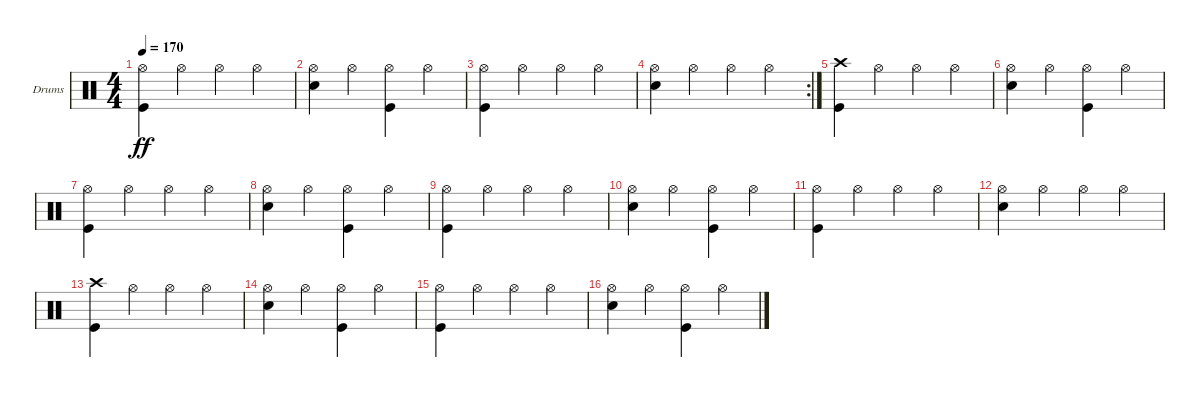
\defaultSystemsLayout 4
\bracketExtendMode groupsimilarinstruments
\firstSystemTrackNameOrientation horizontal
\otherSystemsTrackNameOrientation horizontal
\track ("Inferno" "Drums") {instrument percussion}
\staff {score}
\articulation defaults
\ts (4 4)
\tempo 170
\clef neutral
\ks c
("Hi-Hat (open)" "Kick (hit)").4{dy ff} "Hi-Hat (open)".4 "Hi-Hat (open)".4 "Hi-Hat (open)".4 |
("Hi-Hat (open)" "Snare (hit) 2").4 "Hi-Hat (open)".4 ("Hi-Hat (open)" "Kick (hit)").4 "Hi-Hat (open)".4 |
("Hi-Hat (open)" "Kick (hit)").4 "Hi-Hat (open)".4 "Hi-Hat (open)".4 "Hi-Hat (open)".4 |
\rc 2
("Hi-Hat (open)" "Snare (hit) 2").4 "Hi-Hat (open)".4 "Hi-Hat (open)".4 "Hi-Hat (open)".4 |
("Kick (hit)" "Crash high (hit)").4 "Hi-Hat (open)".4 "Hi-Hat (open)".4 "Hi-Hat (open)".4 |
("Hi-Hat (open)" "Snare (hit) 2").4 "Hi-Hat (open)".4 ("Hi-Hat (open)" "Kick (hit)").4 "Hi-Hat (open)".4 |
("Hi-Hat (open)" "Kick (hit)").4 "Hi-Hat (open)".4 "Hi-Hat (open)".4 "Hi-Hat (open)".4 |
("Hi-Hat (open)" "Snare (hit) 2").4 "Hi-Hat (open)".4 ("Hi-Hat (open)" "Kick (hit)").4 "Hi-Hat (open)".4 |
("Hi-Hat (open)" "Kick (hit)").4 "Hi-Hat (open)".4 "Hi-Hat (open)".4 "Hi-Hat (open)".4 |
("Hi-Hat (open)" "Snare (hit) 2").4 "Hi-Hat (open)".4 ("Hi-Hat (open)" "Kick (hit)").4 "Hi-Hat (open)".4 |
("Hi-Hat (open)" "Kick (hit)").4 "Hi-Hat (open)".4 "Hi-Hat (open)".4 "Hi-Hat (open)".4 |
("Hi-Hat (open)" "Snare (hit) 2").4 "Hi-Hat (open)".4 "Hi-Hat (open)".4 "Hi-Hat (open)".4 |
("Kick (hit)" "Crash high (hit)").4 "Hi-Hat (open)".4 "Hi-Hat (open)".4 "Hi-Hat (open)".4 |
("Hi-Hat (open)" "Snare (hit) 2").4 "Hi-Hat (open)".4 ("Hi-Hat (open)" "Kick (hit)").4 "Hi-Hat (open)".4 |
("Hi-Hat (open)" "Kick (hit)").4 "Hi-Hat (open)".4 "Hi-Hat (open)".4 "Hi-Hat (open)".4 |
("Hi-Hat (open)" "Snare (hit) 2").4 "Hi-Hat (open)".4 ("Hi-Hat (open)" "Kick (hit)").4 "Hi-Hat (open)".4
